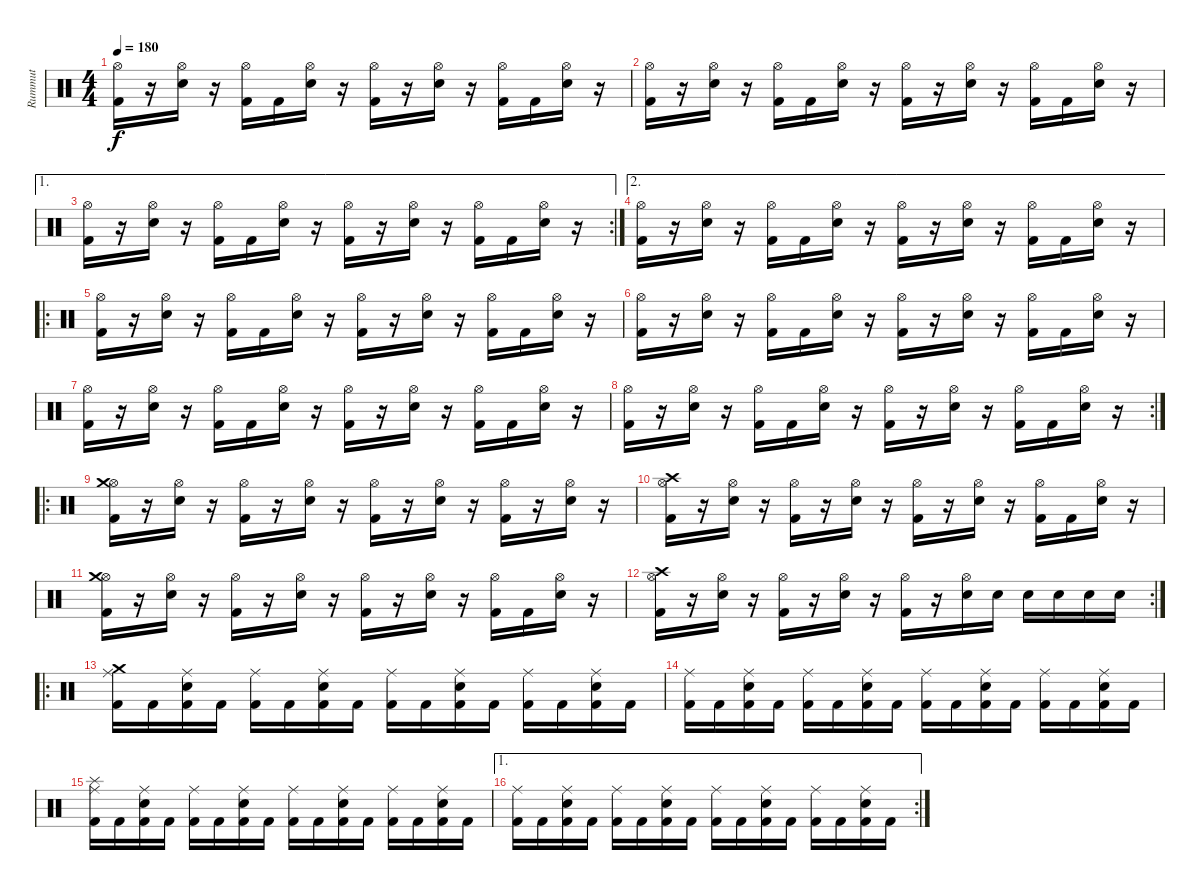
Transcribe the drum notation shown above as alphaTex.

\track ("Rummut" "Rummut") {instrument percussion}
\staff {score}
\articulation defaults
\ts (4 4)
\tempo 180
\clef neutral
\ks c
("Kick (hit) 2" "Hi-Hat (open)").16{dy f} r.16 ("Snare (hit) 2" "Hi-Hat (open)").16 r.16 ("Kick (hit) 2" "Hi-Hat (open)").16 "Kick (hit) 2".16 ("Snare (hit) 2" "Hi-Hat (open)").16 r.16 ("Kick (hit) 2" "Hi-Hat (open)").16 r.16 ("Snare (hit) 2" "Hi-Hat (open)").16 r.16 ("Kick (hit) 2" "Hi-Hat (open)").16 "Kick (hit) 2".16 ("Snare (hit) 2" "Hi-Hat (open)").16 r.16 |
("Kick (hit) 2" "Hi-Hat (open)").16 r.16 ("Snare (hit) 2" "Hi-Hat (open)").16 r.16 ("Kick (hit) 2" "Hi-Hat (open)").16 "Kick (hit) 2".16 ("Snare (hit) 2" "Hi-Hat (open)").16 r.16 ("Kick (hit) 2" "Hi-Hat (open)").16 r.16 ("Snare (hit) 2" "Hi-Hat (open)").16 r.16 ("Kick (hit) 2" "Hi-Hat (open)").16 "Kick (hit) 2".16 ("Snare (hit) 2" "Hi-Hat (open)").16 r.16 |
\ae 1
\rc 2
("Kick (hit) 2" "Hi-Hat (open)").16 r.16 ("Snare (hit) 2" "Hi-Hat (open)").16 r.16 ("Kick (hit) 2" "Hi-Hat (open)").16 "Kick (hit) 2".16 ("Snare (hit) 2" "Hi-Hat (open)").16 r.16 ("Kick (hit) 2" "Hi-Hat (open)").16 r.16 ("Snare (hit) 2" "Hi-Hat (open)").16 r.16 ("Kick (hit) 2" "Hi-Hat (open)").16 "Kick (hit) 2".16 ("Snare (hit) 2" "Hi-Hat (open)").16 r.16 |
\ae 2
("Kick (hit) 2" "Hi-Hat (open)").16 r.16 ("Snare (hit) 2" "Hi-Hat (open)").16 r.16 ("Kick (hit) 2" "Hi-Hat (open)").16 "Kick (hit) 2".16 ("Snare (hit) 2" "Hi-Hat (open)").16 r.16 ("Kick (hit) 2" "Hi-Hat (open)").16 r.16 ("Snare (hit) 2" "Hi-Hat (open)").16 r.16 ("Kick (hit) 2" "Hi-Hat (open)").16 "Kick (hit) 2".16 ("Snare (hit) 2" "Hi-Hat (open)").16 r.16 |
\ro
("Kick (hit) 2" "Hi-Hat (open)").16 r.16 ("Snare (hit) 2" "Hi-Hat (open)").16 r.16 ("Kick (hit) 2" "Hi-Hat (open)").16 "Kick (hit) 2".16 ("Snare (hit) 2" "Hi-Hat (open)").16 r.16 ("Kick (hit) 2" "Hi-Hat (open)").16 r.16 ("Snare (hit) 2" "Hi-Hat (open)").16 r.16 ("Kick (hit) 2" "Hi-Hat (open)").16 "Kick (hit) 2".16 ("Snare (hit) 2" "Hi-Hat (open)").16 r.16 |
("Kick (hit) 2" "Hi-Hat (open)").16 r.16 ("Snare (hit) 2" "Hi-Hat (open)").16 r.16 ("Kick (hit) 2" "Hi-Hat (open)").16 "Kick (hit) 2".16 ("Snare (hit) 2" "Hi-Hat (open)").16 r.16 ("Kick (hit) 2" "Hi-Hat (open)").16 r.16 ("Snare (hit) 2" "Hi-Hat (open)").16 r.16 ("Kick (hit) 2" "Hi-Hat (open)").16 "Kick (hit) 2".16 ("Snare (hit) 2" "Hi-Hat (open)").16 r.16 |
("Kick (hit) 2" "Hi-Hat (open)").16 r.16 ("Snare (hit) 2" "Hi-Hat (open)").16 r.16 ("Kick (hit) 2" "Hi-Hat (open)").16 "Kick (hit) 2".16 ("Snare (hit) 2" "Hi-Hat (open)").16 r.16 ("Kick (hit) 2" "Hi-Hat (open)").16 r.16 ("Snare (hit) 2" "Hi-Hat (open)").16 r.16 ("Kick (hit) 2" "Hi-Hat (open)").16 "Kick (hit) 2".16 ("Snare (hit) 2" "Hi-Hat (open)").16 r.16 |
\rc 2
("Kick (hit) 2" "Hi-Hat (open)").16 r.16 ("Snare (hit) 2" "Hi-Hat (open)").16 r.16 ("Kick (hit) 2" "Hi-Hat (open)").16 "Kick (hit) 2".16 ("Snare (hit) 2" "Hi-Hat (open)").16 r.16 ("Kick (hit) 2" "Hi-Hat (open)").16 r.16 ("Snare (hit) 2" "Hi-Hat (open)").16 r.16 ("Kick (hit) 2" "Hi-Hat (open)").16 "Kick (hit) 2".16 ("Snare (hit) 2" "Hi-Hat (open)").16 r.16 |
\ro
("Kick (hit) 2" "Hi-Hat (open)" "Crash medium (hit)").16 r.16 ("Snare (hit) 2" "Hi-Hat (open)").16 r.16 ("Kick (hit) 2" "Hi-Hat (open)").16 r.16 ("Snare (hit) 2" "Hi-Hat (open)").16 r.16 ("Kick (hit) 2" "Hi-Hat (open)").16 r.16 ("Snare (hit) 2" "Hi-Hat (open)").16 r.16 ("Kick (hit) 2" "Hi-Hat (open)").16 r.16 ("Snare (hit) 2" "Hi-Hat (open)").16 r.16 |
("Kick (hit) 2" "Hi-Hat (open)" "Crash high (hit)").16 r.16 ("Snare (hit) 2" "Hi-Hat (open)").16 r.16 ("Kick (hit) 2" "Hi-Hat (open)").16 r.16 ("Snare (hit) 2" "Hi-Hat (open)").16 r.16 ("Kick (hit) 2" "Hi-Hat (open)").16 r.16 ("Snare (hit) 2" "Hi-Hat (open)").16 r.16 ("Kick (hit) 2" "Hi-Hat (open)").16 "Kick (hit) 2".16 ("Snare (hit) 2" "Hi-Hat (open)").16 r.16 |
("Kick (hit) 2" "Hi-Hat (open)" "Crash medium (hit)").16 r.16 ("Snare (hit) 2" "Hi-Hat (open)").16 r.16 ("Kick (hit) 2" "Hi-Hat (open)").16 r.16 ("Snare (hit) 2" "Hi-Hat (open)").16 r.16 ("Kick (hit) 2" "Hi-Hat (open)").16 r.16 ("Snare (hit) 2" "Hi-Hat (open)").16 r.16 ("Kick (hit) 2" "Hi-Hat (open)").16 "Kick (hit) 2".16 ("Snare (hit) 2" "Hi-Hat (open)").16 r.16 |
\rc 2
("Kick (hit) 2" "Hi-Hat (open)" "Crash high (hit)").16 r.16 ("Snare (hit) 2" "Hi-Hat (open)").16 r.16 ("Kick (hit) 2" "Hi-Hat (open)").16 r.16 ("Snare (hit) 2" "Hi-Hat (open)").16 r.16 ("Kick (hit) 2" "Hi-Hat (open)").16 r.16 ("Snare (hit) 2" "Hi-Hat (open)").16 "Snare (hit) 2".16 "Snare (hit) 2".16 "Snare (hit) 2".16 "Snare (hit) 2".16 "Snare (hit) 2".16 |
\ro
("Kick (hit) 2" "Ride (middle)" "Crash medium (hit)").16 "Kick (hit) 2".16 ("Kick (hit) 2" "Snare (hit) 2" "Ride (middle)").16 "Kick (hit) 2".16 ("Kick (hit) 2" "Ride (middle)").16 "Kick (hit) 2".16 ("Kick (hit) 2" "Snare (hit) 2" "Ride (middle)").16 "Kick (hit) 2".16 ("Kick (hit) 2" "Ride (middle)").16 "Kick (hit) 2".16 ("Kick (hit) 2" "Snare (hit) 2" "Ride (middle)").16 "Kick (hit) 2".16 ("Kick (hit) 2" "Ride (middle)").16 "Kick (hit) 2".16 ("Kick (hit) 2" "Snare (hit) 2" "Ride (middle)").16 "Kick (hit) 2".16 |
("Kick (hit) 2" "Ride (middle)").16 "Kick (hit) 2".16 ("Kick (hit) 2" "Snare (hit) 2" "Ride (middle)").16 "Kick (hit) 2".16 ("Kick (hit) 2" "Ride (middle)").16 "Kick (hit) 2".16 ("Kick (hit) 2" "Snare (hit) 2" "Ride (middle)").16 "Kick (hit) 2".16 ("Kick (hit) 2" "Ride (middle)").16 "Kick (hit) 2".16 ("Kick (hit) 2" "Snare (hit) 2" "Ride (middle)").16 "Kick (hit) 2".16 ("Kick (hit) 2" "Ride (middle)").16 "Kick (hit) 2".16 ("Kick (hit) 2" "Snare (hit) 2" "Ride (middle)").16 "Kick (hit) 2".16 |
("Kick (hit) 2" "Ride (middle)" "Splash (hit)").16 "Kick (hit) 2".16 ("Kick (hit) 2" "Snare (hit) 2" "Ride (middle)").16 "Kick (hit) 2".16 ("Kick (hit) 2" "Ride (middle)").16 "Kick (hit) 2".16 ("Kick (hit) 2" "Snare (hit) 2" "Ride (middle)").16 "Kick (hit) 2".16 ("Kick (hit) 2" "Ride (middle)").16 "Kick (hit) 2".16 ("Kick (hit) 2" "Snare (hit) 2" "Ride (middle)").16 "Kick (hit) 2".16 ("Kick (hit) 2" "Ride (middle)").16 "Kick (hit) 2".16 ("Kick (hit) 2" "Snare (hit) 2" "Ride (middle)").16 "Kick (hit) 2".16 |
\ae 1
\rc 2
("Kick (hit) 2" "Ride (middle)").16 "Kick (hit) 2".16 ("Kick (hit) 2" "Snare (hit) 2" "Ride (middle)").16 "Kick (hit) 2".16 ("Kick (hit) 2" "Ride (middle)").16 "Kick (hit) 2".16 ("Kick (hit) 2" "Snare (hit) 2" "Ride (middle)").16 "Kick (hit) 2".16 ("Kick (hit) 2" "Ride (middle)").16 "Kick (hit) 2".16 ("Kick (hit) 2" "Snare (hit) 2" "Ride (middle)").16 "Kick (hit) 2".16 ("Kick (hit) 2" "Ride (middle)").16 "Kick (hit) 2".16 ("Kick (hit) 2" "Snare (hit) 2" "Ride (middle)").16 "Kick (hit) 2".16
